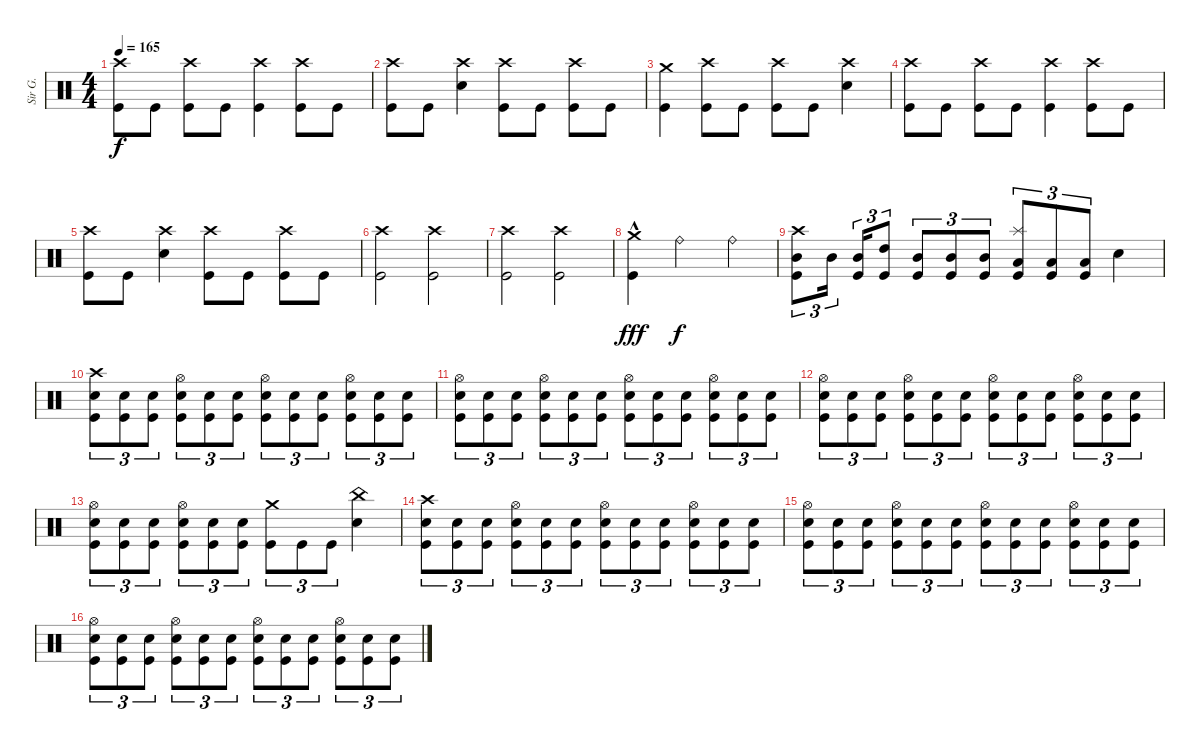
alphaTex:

\track ("Sir G." "Sir G.") {instrument percussion}
\staff {score}
\articulation defaults
\ts (4 4)
\tempo 165
\clef neutral
\ks c
("Crash high (hit)" "Kick (hit)").8{dy f} "Kick (hit)".8 ("Crash high (hit)" "Kick (hit)").8 "Kick (hit)".8 ("Crash high (hit)" "Kick (hit)").4 ("Crash high (hit)" "Kick (hit)").8 "Kick (hit)".8 |
("Crash high (hit)" "Kick (hit)").8 "Kick (hit)".8 ("Crash high (hit)" "Electric Snare (hit)").4 ("Crash high (hit)" "Kick (hit)").8 "Kick (hit)".8 ("Crash high (hit)" "Kick (hit)").8 "Kick (hit)".8 |
("Crash medium (hit)" "Kick (hit)").4 ("Crash high (hit)" "Kick (hit)").8 "Kick (hit)".8 ("Crash high (hit)" "Kick (hit)").8 "Kick (hit)".8 ("Crash high (hit)" "Electric Snare (hit)").4 |
("Crash high (hit)" "Kick (hit)").8 "Kick (hit)".8 ("Crash high (hit)" "Kick (hit)").8 "Kick (hit)".8 ("Crash high (hit)" "Kick (hit)").4 ("Crash high (hit)" "Kick (hit)").8 "Kick (hit)".8 |
("Crash high (hit)" "Kick (hit)").8 "Kick (hit)".8 ("Crash high (hit)" "Electric Snare (hit)").4 ("Crash high (hit)" "Kick (hit)").8 "Kick (hit)".8 ("Crash high (hit)" "Kick (hit)").8 "Kick (hit)".8 |
("Crash high (hit)" "Kick (hit)").2 ("Crash high (hit)" "Kick (hit)").2 |
("Crash high (hit)" "Kick (hit)").2 ("Crash high (hit)" "Kick (hit)").2 |
("Crash medium (hit)"{hac} "Kick (hit)").4{dy fff} "Ride (bell)".2{dy f} "Ride (bell)".4 |
("Crash high (hit)" "Mid Tom (hit)" "Kick (hit)").8{tu (3 2)} "Mid Tom (hit)".16{tu (3 2) beam splitsecondary} ("Mid Tom (hit)" "Kick (hit)").16{tu (3 2)} ("High Tom (hit)" "Kick (hit)").8{tu (3 2)} ("Mid Tom (hit)" "Kick (hit)").8{tu (3 2)} ("Mid Tom (hit)" "Kick (hit)").8{tu (3 2)} ("Mid Tom (hit)" "Kick (hit)").8{tu (3 2)} ("Splash (hit)" "Low Tom (hit)" "Kick (hit)").8{tu (3 2)} ("Low Tom (hit)" "Kick (hit)").8{tu (3 2)} ("Low Tom (hit)" "Kick (hit)").8{tu (3 2)} "Electric Snare (hit)".4 |
("Crash high (hit)" "Electric Snare (hit)" "Kick (hit)").8{tu (3 2)} ("Electric Snare (hit)" "Kick (hit)").8{tu (3 2)} ("Electric Snare (hit)" "Kick (hit)").8{tu (3 2)} ("Hi-Hat (open)" "Electric Snare (hit)" "Kick (hit)").8{tu (3 2)} ("Electric Snare (hit)" "Kick (hit)").8{tu (3 2)} ("Electric Snare (hit)" "Kick (hit)").8{tu (3 2)} ("Hi-Hat (open)" "Electric Snare (hit)" "Kick (hit)").8{tu (3 2)} ("Electric Snare (hit)" "Kick (hit)").8{tu (3 2)} ("Electric Snare (hit)" "Kick (hit)").8{tu (3 2)} ("Hi-Hat (open)" "Electric Snare (hit)" "Kick (hit)").8{tu (3 2)} ("Electric Snare (hit)" "Kick (hit)").8{tu (3 2)} ("Electric Snare (hit)" "Kick (hit)").8{tu (3 2)} |
("Hi-Hat (open)" "Electric Snare (hit)" "Kick (hit)").8{tu (3 2)} ("Electric Snare (hit)" "Kick (hit)").8{tu (3 2)} ("Electric Snare (hit)" "Kick (hit)").8{tu (3 2)} ("Hi-Hat (open)" "Electric Snare (hit)" "Kick (hit)").8{tu (3 2)} ("Electric Snare (hit)" "Kick (hit)").8{tu (3 2)} ("Electric Snare (hit)" "Kick (hit)").8{tu (3 2)} ("Hi-Hat (open)" "Electric Snare (hit)" "Kick (hit)").8{tu (3 2)} ("Electric Snare (hit)" "Kick (hit)").8{tu (3 2)} ("Electric Snare (hit)" "Kick (hit)").8{tu (3 2)} ("Hi-Hat (open)" "Electric Snare (hit)" "Kick (hit)").8{tu (3 2)} ("Electric Snare (hit)" "Kick (hit)").8{tu (3 2)} ("Electric Snare (hit)" "Kick (hit)").8{tu (3 2)} |
("Hi-Hat (open)" "Electric Snare (hit)" "Kick (hit)").8{tu (3 2)} ("Electric Snare (hit)" "Kick (hit)").8{tu (3 2)} ("Electric Snare (hit)" "Kick (hit)").8{tu (3 2)} ("Hi-Hat (open)" "Electric Snare (hit)" "Kick (hit)").8{tu (3 2)} ("Electric Snare (hit)" "Kick (hit)").8{tu (3 2)} ("Electric Snare (hit)" "Kick (hit)").8{tu (3 2)} ("Hi-Hat (open)" "Electric Snare (hit)" "Kick (hit)").8{tu (3 2)} ("Electric Snare (hit)" "Kick (hit)").8{tu (3 2)} ("Electric Snare (hit)" "Kick (hit)").8{tu (3 2)} ("Hi-Hat (open)" "Electric Snare (hit)" "Kick (hit)").8{tu (3 2)} ("Electric Snare (hit)" "Kick (hit)").8{tu (3 2)} ("Electric Snare (hit)" "Kick (hit)").8{tu (3 2)} |
("Hi-Hat (open)" "Electric Snare (hit)" "Kick (hit)").8{tu (3 2)} ("Electric Snare (hit)" "Kick (hit)").8{tu (3 2)} ("Electric Snare (hit)" "Kick (hit)").8{tu (3 2)} ("Hi-Hat (open)" "Electric Snare (hit)" "Kick (hit)").8{tu (3 2)} ("Electric Snare (hit)" "Kick (hit)").8{tu (3 2)} ("Electric Snare (hit)" "Kick (hit)").8{tu (3 2)} ("Crash medium (hit)" "Kick (hit)").8{tu (3 2)} "Kick (hit)".8{tu (3 2)} "Kick (hit)".8{tu (3 2)} ("China (hit)" "Electric Snare (hit)").4 |
("Crash high (hit)" "Electric Snare (hit)" "Kick (hit)").8{tu (3 2)} ("Electric Snare (hit)" "Kick (hit)").8{tu (3 2)} ("Electric Snare (hit)" "Kick (hit)").8{tu (3 2)} ("Hi-Hat (open)" "Electric Snare (hit)" "Kick (hit)").8{tu (3 2)} ("Electric Snare (hit)" "Kick (hit)").8{tu (3 2)} ("Electric Snare (hit)" "Kick (hit)").8{tu (3 2)} ("Hi-Hat (open)" "Electric Snare (hit)" "Kick (hit)").8{tu (3 2)} ("Electric Snare (hit)" "Kick (hit)").8{tu (3 2)} ("Electric Snare (hit)" "Kick (hit)").8{tu (3 2)} ("Hi-Hat (open)" "Electric Snare (hit)" "Kick (hit)").8{tu (3 2)} ("Electric Snare (hit)" "Kick (hit)").8{tu (3 2)} ("Electric Snare (hit)" "Kick (hit)").8{tu (3 2)} |
("Hi-Hat (open)" "Electric Snare (hit)" "Kick (hit)").8{tu (3 2)} ("Electric Snare (hit)" "Kick (hit)").8{tu (3 2)} ("Electric Snare (hit)" "Kick (hit)").8{tu (3 2)} ("Hi-Hat (open)" "Electric Snare (hit)" "Kick (hit)").8{tu (3 2)} ("Electric Snare (hit)" "Kick (hit)").8{tu (3 2)} ("Electric Snare (hit)" "Kick (hit)").8{tu (3 2)} ("Hi-Hat (open)" "Electric Snare (hit)" "Kick (hit)").8{tu (3 2)} ("Electric Snare (hit)" "Kick (hit)").8{tu (3 2)} ("Electric Snare (hit)" "Kick (hit)").8{tu (3 2)} ("Hi-Hat (open)" "Electric Snare (hit)" "Kick (hit)").8{tu (3 2)} ("Electric Snare (hit)" "Kick (hit)").8{tu (3 2)} ("Electric Snare (hit)" "Kick (hit)").8{tu (3 2)} |
("Hi-Hat (open)" "Electric Snare (hit)" "Kick (hit)").8{tu (3 2)} ("Electric Snare (hit)" "Kick (hit)").8{tu (3 2)} ("Electric Snare (hit)" "Kick (hit)").8{tu (3 2)} ("Hi-Hat (open)" "Electric Snare (hit)" "Kick (hit)").8{tu (3 2)} ("Electric Snare (hit)" "Kick (hit)").8{tu (3 2)} ("Electric Snare (hit)" "Kick (hit)").8{tu (3 2)} ("Hi-Hat (open)" "Electric Snare (hit)" "Kick (hit)").8{tu (3 2)} ("Electric Snare (hit)" "Kick (hit)").8{tu (3 2)} ("Electric Snare (hit)" "Kick (hit)").8{tu (3 2)} ("Hi-Hat (open)" "Electric Snare (hit)" "Kick (hit)").8{tu (3 2)} ("Electric Snare (hit)" "Kick (hit)").8{tu (3 2)} ("Electric Snare (hit)" "Kick (hit)").8{tu (3 2)}
